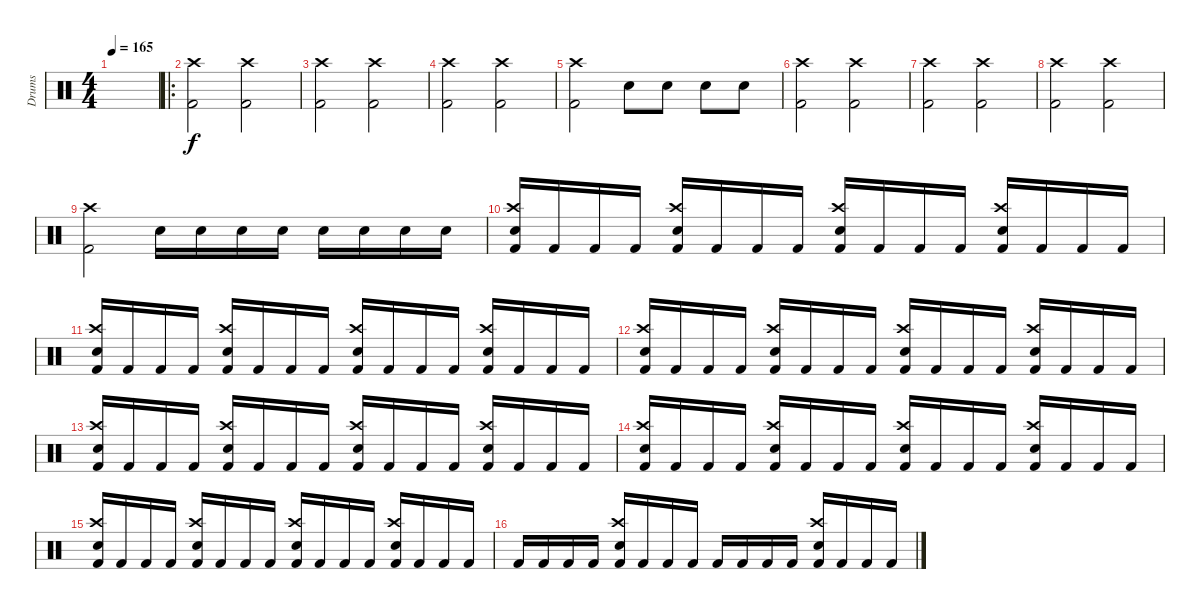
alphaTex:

\track ("Drums" "Drums") {instrument percussion}
\staff {score}
\articulation defaults
\ts (4 4)
\tempo 165
\clef neutral
\ks c
|
\ro
("Kick (hit) 2" "Crash high (hit)").2 ("Kick (hit) 2" "Crash high (hit)").2 |
("Kick (hit) 2" "Crash high (hit)").2 ("Kick (hit) 2" "Crash high (hit)").2 |
("Kick (hit) 2" "Crash high (hit)").2 ("Kick (hit) 2" "Crash high (hit)").2 |
("Kick (hit) 2" "Crash high (hit)").2 "Snare (hit) 2".8 "Snare (hit) 2".8 "Snare (hit) 2".8 "Snare (hit) 2".8 |
("Kick (hit) 2" "Crash high (hit)").2 ("Kick (hit) 2" "Crash high (hit)").2 |
("Kick (hit) 2" "Crash high (hit)").2 ("Kick (hit) 2" "Crash high (hit)").2 |
("Kick (hit) 2" "Crash high (hit)").2 ("Kick (hit) 2" "Crash high (hit)").2 |
("Kick (hit) 2" "Crash high (hit)").2 "Snare (hit) 2".16 "Snare (hit) 2".16 "Snare (hit) 2".16 "Snare (hit) 2".16 "Snare (hit) 2".16 "Snare (hit) 2".16 "Snare (hit) 2".16 "Snare (hit) 2".16 |
("Kick (hit) 2" "Snare (hit) 2" "Crash high (hit)").16 "Kick (hit) 2".16 "Kick (hit) 2".16 "Kick (hit) 2".16 ("Kick (hit) 2" "Snare (hit) 2" "Crash high (hit)").16 "Kick (hit) 2".16 "Kick (hit) 2".16 "Kick (hit) 2".16 ("Kick (hit) 2" "Snare (hit) 2" "Crash high (hit)").16 "Kick (hit) 2".16 "Kick (hit) 2".16 "Kick (hit) 2".16 ("Kick (hit) 2" "Snare (hit) 2" "Crash high (hit)").16 "Kick (hit) 2".16 "Kick (hit) 2".16 "Kick (hit) 2".16 |
("Kick (hit) 2" "Snare (hit) 2" "Crash high (hit)").16 "Kick (hit) 2".16 "Kick (hit) 2".16 "Kick (hit) 2".16 ("Kick (hit) 2" "Snare (hit) 2" "Crash high (hit)").16 "Kick (hit) 2".16 "Kick (hit) 2".16 "Kick (hit) 2".16 ("Kick (hit) 2" "Snare (hit) 2" "Crash high (hit)").16 "Kick (hit) 2".16 "Kick (hit) 2".16 "Kick (hit) 2".16 ("Kick (hit) 2" "Snare (hit) 2" "Crash high (hit)").16 "Kick (hit) 2".16 "Kick (hit) 2".16 "Kick (hit) 2".16 |
("Kick (hit) 2" "Snare (hit) 2" "Crash high (hit)").16 "Kick (hit) 2".16 "Kick (hit) 2".16 "Kick (hit) 2".16 ("Kick (hit) 2" "Snare (hit) 2" "Crash high (hit)").16 "Kick (hit) 2".16 "Kick (hit) 2".16 "Kick (hit) 2".16 ("Kick (hit) 2" "Snare (hit) 2" "Crash high (hit)").16 "Kick (hit) 2".16 "Kick (hit) 2".16 "Kick (hit) 2".16 ("Kick (hit) 2" "Snare (hit) 2" "Crash high (hit)").16 "Kick (hit) 2".16 "Kick (hit) 2".16 "Kick (hit) 2".16 |
("Kick (hit) 2" "Snare (hit) 2" "Crash high (hit)").16 "Kick (hit) 2".16 "Kick (hit) 2".16 "Kick (hit) 2".16 ("Kick (hit) 2" "Snare (hit) 2" "Crash high (hit)").16 "Kick (hit) 2".16 "Kick (hit) 2".16 "Kick (hit) 2".16 ("Kick (hit) 2" "Snare (hit) 2" "Crash high (hit)").16 "Kick (hit) 2".16 "Kick (hit) 2".16 "Kick (hit) 2".16 ("Kick (hit) 2" "Snare (hit) 2" "Crash high (hit)").16 "Kick (hit) 2".16 "Kick (hit) 2".16 "Kick (hit) 2".16 |
("Kick (hit) 2" "Snare (hit) 2" "Crash high (hit)").16 "Kick (hit) 2".16 "Kick (hit) 2".16 "Kick (hit) 2".16 ("Kick (hit) 2" "Snare (hit) 2" "Crash high (hit)").16 "Kick (hit) 2".16 "Kick (hit) 2".16 "Kick (hit) 2".16 ("Kick (hit) 2" "Snare (hit) 2" "Crash high (hit)").16 "Kick (hit) 2".16 "Kick (hit) 2".16 "Kick (hit) 2".16 ("Kick (hit) 2" "Snare (hit) 2" "Crash high (hit)").16 "Kick (hit) 2".16 "Kick (hit) 2".16 "Kick (hit) 2".16 |
("Kick (hit) 2" "Snare (hit) 2" "Crash high (hit)").16 "Kick (hit) 2".16 "Kick (hit) 2".16 "Kick (hit) 2".16 ("Kick (hit) 2" "Snare (hit) 2" "Crash high (hit)").16 "Kick (hit) 2".16 "Kick (hit) 2".16 "Kick (hit) 2".16 ("Kick (hit) 2" "Snare (hit) 2" "Crash high (hit)").16 "Kick (hit) 2".16 "Kick (hit) 2".16 "Kick (hit) 2".16 ("Kick (hit) 2" "Snare (hit) 2" "Crash high (hit)").16 "Kick (hit) 2".16 "Kick (hit) 2".16 "Kick (hit) 2".16 |
"Kick (hit) 2".16 "Kick (hit) 2".16 "Kick (hit) 2".16 "Kick (hit) 2".16 ("Kick (hit) 2" "Snare (hit) 2" "Crash high (hit)").16 "Kick (hit) 2".16 "Kick (hit) 2".16 "Kick (hit) 2".16 "Kick (hit) 2".16 "Kick (hit) 2".16 "Kick (hit) 2".16 "Kick (hit) 2".16 ("Kick (hit) 2" "Snare (hit) 2" "Crash high (hit)").16 "Kick (hit) 2".16 "Kick (hit) 2".16 "Kick (hit) 2".16
